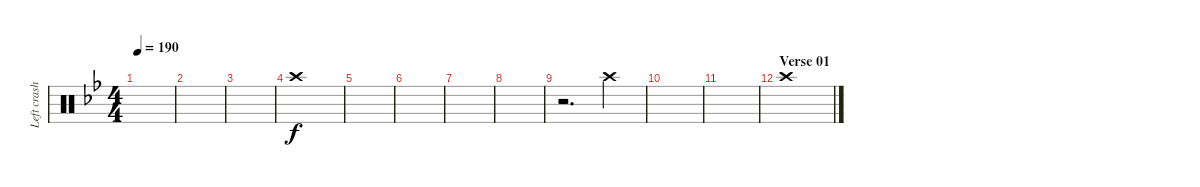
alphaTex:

\track ("Left crash" "Left crash") {instrument percussion}
\staff {score}
\articulation defaults
\ts (4 4)
\tempo 190
\clef neutral
\ks bb
|
|
|
"Crash high (hit)".1 |
|
|
|
|
r.2{d} "Crash high (hit)".4 |
|
|
\section ("" "Verse 01")
"Crash high (hit)".1
